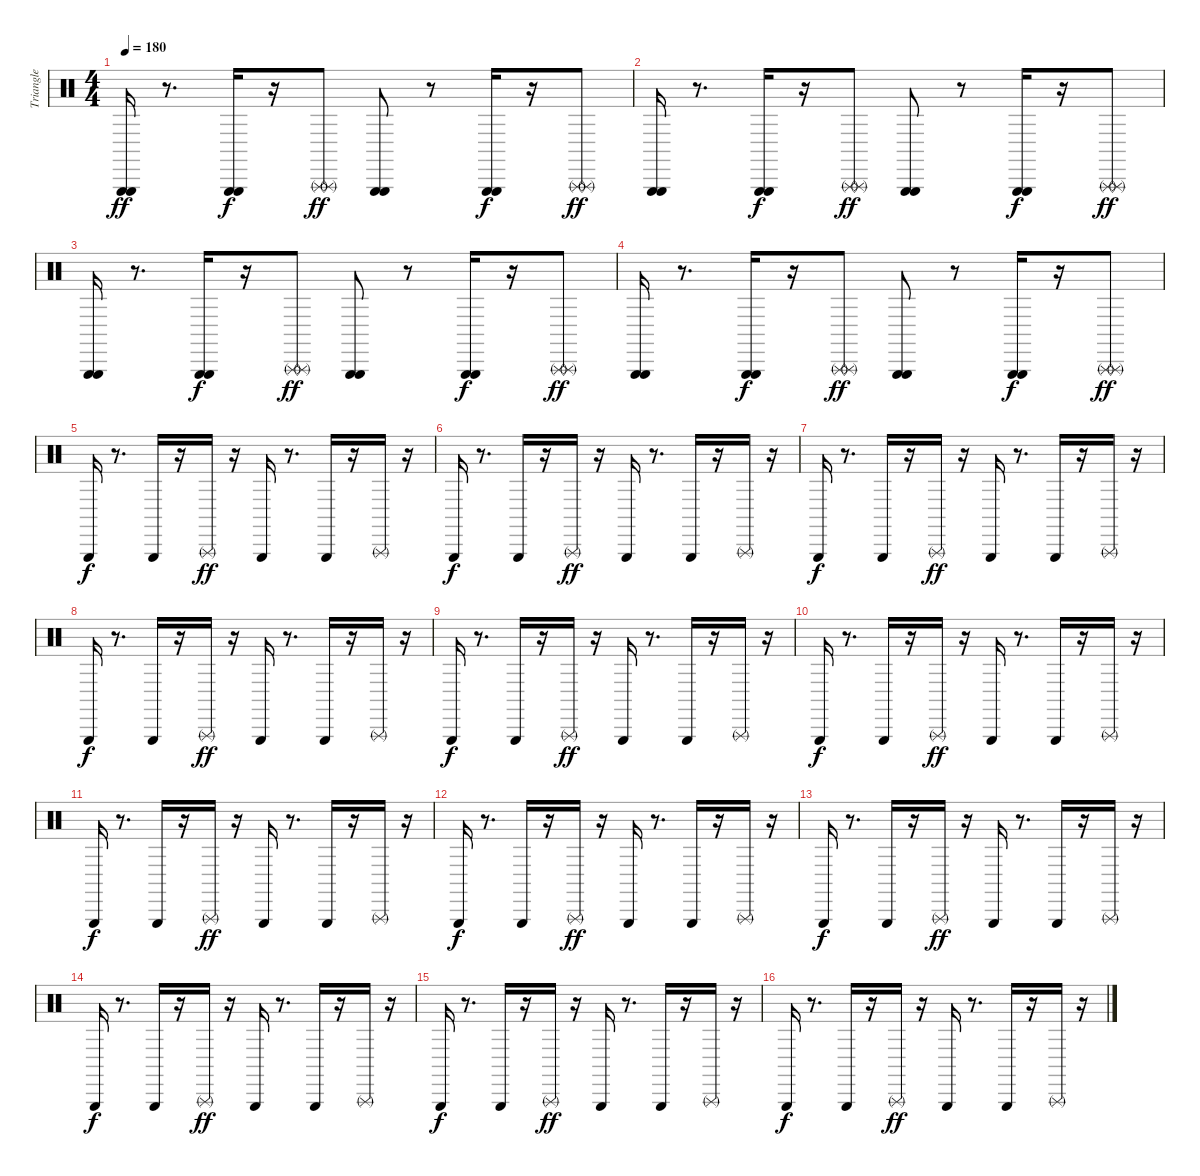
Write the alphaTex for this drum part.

\track ("Triangle" "Triangle") {instrument percussion}
\staff {score}
\articulation defaults
\ts (4 4)
\tempo 180
\clef neutral
\ks c
("Triangle (hit)" "Triangle (hit)").16{dy ff} r.8{d} ("Triangle (hit)" "Triangle (hit)").16{dy f} r.16 ("Triangle (rnute)" "Triangle (rnute)").8{dy ff} ("Triangle (hit)" "Triangle (hit)").8 r.8 ("Triangle (hit)" "Triangle (hit)").16{dy f} r.16 ("Triangle (rnute)" "Triangle (rnute)").8{dy ff} |
("Triangle (hit)" "Triangle (hit)").16 r.8{d} ("Triangle (hit)" "Triangle (hit)").16{dy f} r.16 ("Triangle (rnute)" "Triangle (rnute)").8{dy ff} ("Triangle (hit)" "Triangle (hit)").8 r.8 ("Triangle (hit)" "Triangle (hit)").16{dy f} r.16 ("Triangle (rnute)" "Triangle (rnute)").8{dy ff} |
("Triangle (hit)" "Triangle (hit)").16 r.8{d} ("Triangle (hit)" "Triangle (hit)").16{dy f} r.16 ("Triangle (rnute)" "Triangle (rnute)").8{dy ff} ("Triangle (hit)" "Triangle (hit)").8 r.8 ("Triangle (hit)" "Triangle (hit)").16{dy f} r.16 ("Triangle (rnute)" "Triangle (rnute)").8{dy ff} |
("Triangle (hit)" "Triangle (hit)").16 r.8{d} ("Triangle (hit)" "Triangle (hit)").16{dy f} r.16 ("Triangle (rnute)" "Triangle (rnute)").8{dy ff} ("Triangle (hit)" "Triangle (hit)").8 r.8 ("Triangle (hit)" "Triangle (hit)").16{dy f} r.16 ("Triangle (rnute)" "Triangle (rnute)").8{dy ff} |
"Triangle (hit)".16{dy f} r.8{d} "Triangle (hit)".16 r.16 "Triangle (rnute)".16{dy ff} r.16 "Triangle (hit)".16 r.8{d} "Triangle (hit)".16 r.16 "Triangle (rnute)".16 r.16 |
"Triangle (hit)".16{dy f} r.8{d} "Triangle (hit)".16 r.16 "Triangle (rnute)".16{dy ff} r.16 "Triangle (hit)".16 r.8{d} "Triangle (hit)".16 r.16 "Triangle (rnute)".16 r.16 |
"Triangle (hit)".16{dy f} r.8{d} "Triangle (hit)".16 r.16 "Triangle (rnute)".16{dy ff} r.16 "Triangle (hit)".16 r.8{d} "Triangle (hit)".16 r.16 "Triangle (rnute)".16 r.16 |
"Triangle (hit)".16{dy f} r.8{d} "Triangle (hit)".16 r.16 "Triangle (rnute)".16{dy ff} r.16 "Triangle (hit)".16 r.8{d} "Triangle (hit)".16 r.16 "Triangle (rnute)".16 r.16 |
"Triangle (hit)".16{dy f} r.8{d} "Triangle (hit)".16 r.16 "Triangle (rnute)".16{dy ff} r.16 "Triangle (hit)".16 r.8{d} "Triangle (hit)".16 r.16 "Triangle (rnute)".16 r.16 |
"Triangle (hit)".16{dy f} r.8{d} "Triangle (hit)".16 r.16 "Triangle (rnute)".16{dy ff} r.16 "Triangle (hit)".16 r.8{d} "Triangle (hit)".16 r.16 "Triangle (rnute)".16 r.16 |
"Triangle (hit)".16{dy f} r.8{d} "Triangle (hit)".16 r.16 "Triangle (rnute)".16{dy ff} r.16 "Triangle (hit)".16 r.8{d} "Triangle (hit)".16 r.16 "Triangle (rnute)".16 r.16 |
"Triangle (hit)".16{dy f} r.8{d} "Triangle (hit)".16 r.16 "Triangle (rnute)".16{dy ff} r.16 "Triangle (hit)".16 r.8{d} "Triangle (hit)".16 r.16 "Triangle (rnute)".16 r.16 |
"Triangle (hit)".16{dy f} r.8{d} "Triangle (hit)".16 r.16 "Triangle (rnute)".16{dy ff} r.16 "Triangle (hit)".16 r.8{d} "Triangle (hit)".16 r.16 "Triangle (rnute)".16 r.16 |
"Triangle (hit)".16{dy f} r.8{d} "Triangle (hit)".16 r.16 "Triangle (rnute)".16{dy ff} r.16 "Triangle (hit)".16 r.8{d} "Triangle (hit)".16 r.16 "Triangle (rnute)".16 r.16 |
"Triangle (hit)".16{dy f} r.8{d} "Triangle (hit)".16 r.16 "Triangle (rnute)".16{dy ff} r.16 "Triangle (hit)".16 r.8{d} "Triangle (hit)".16 r.16 "Triangle (rnute)".16 r.16 |
"Triangle (hit)".16{dy f} r.8{d} "Triangle (hit)".16 r.16 "Triangle (rnute)".16{dy ff} r.16 "Triangle (hit)".16 r.8{d} "Triangle (hit)".16 r.16 "Triangle (rnute)".16 r.16
